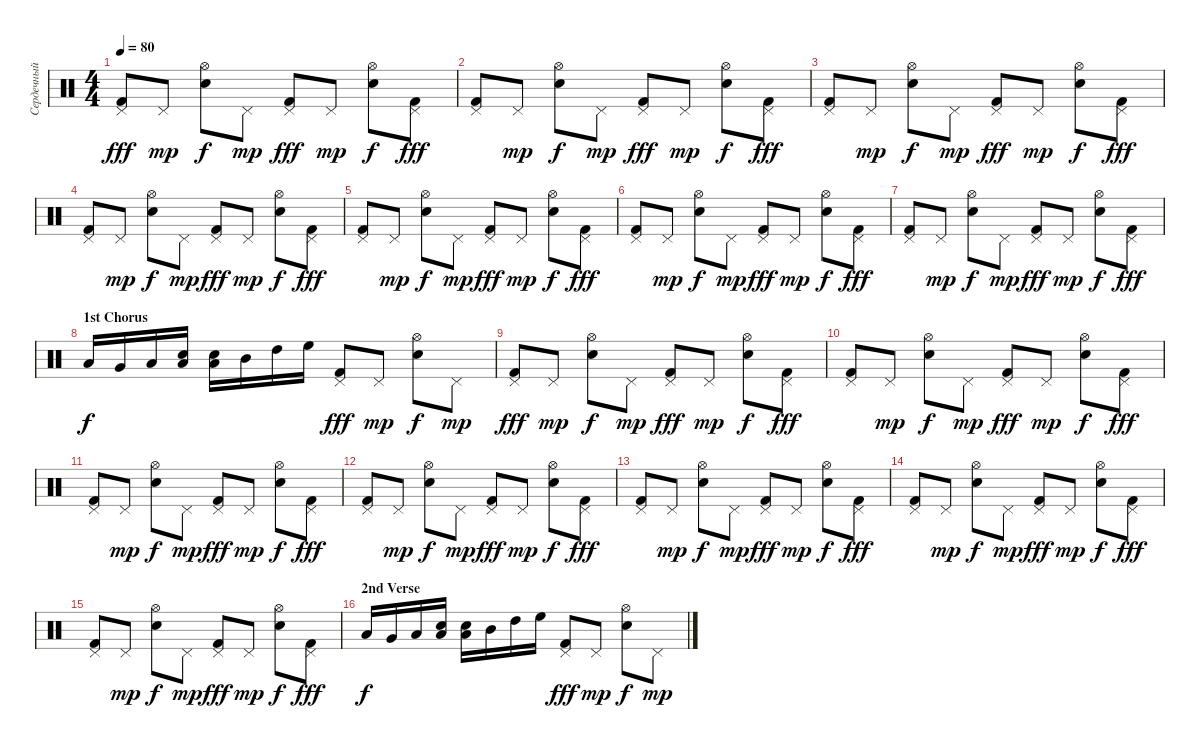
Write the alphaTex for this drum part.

\track ("Сердечный (Ударные)" "Сердечный ") {instrument percussion}
\staff {score}
\articulation defaults
\ts (4 4)
\tempo 80
\clef neutral
\ks c
("Pedal Hi-Hat (hit)" "Kick (hit) 2").8{dy fff} "Pedal Hi-Hat (hit)".8{dy mp} ("Hi-Hat (open)" "Electric Snare (hit)").8{dy f} "Pedal Hi-Hat (hit)".8{dy mp} ("Pedal Hi-Hat (hit)" "Kick (hit) 2").8{dy fff} "Pedal Hi-Hat (hit)".8{dy mp} ("Hi-Hat (open)" "Electric Snare (hit)").8{dy f} ("Pedal Hi-Hat (hit)" "Kick (hit) 2").8{dy fff} |
("Pedal Hi-Hat (hit)" "Kick (hit) 2").8 "Pedal Hi-Hat (hit)".8{dy mp} ("Hi-Hat (open)" "Electric Snare (hit)").8{dy f} "Pedal Hi-Hat (hit)".8{dy mp} ("Pedal Hi-Hat (hit)" "Kick (hit) 2").8{dy fff} "Pedal Hi-Hat (hit)".8{dy mp} ("Hi-Hat (open)" "Electric Snare (hit)").8{dy f} ("Pedal Hi-Hat (hit)" "Kick (hit) 2").8{dy fff} |
("Pedal Hi-Hat (hit)" "Kick (hit) 2").8 "Pedal Hi-Hat (hit)".8{dy mp} ("Hi-Hat (open)" "Electric Snare (hit)").8{dy f} "Pedal Hi-Hat (hit)".8{dy mp} ("Pedal Hi-Hat (hit)" "Kick (hit) 2").8{dy fff} "Pedal Hi-Hat (hit)".8{dy mp} ("Hi-Hat (open)" "Electric Snare (hit)").8{dy f} ("Pedal Hi-Hat (hit)" "Kick (hit) 2").8{dy fff} |
("Pedal Hi-Hat (hit)" "Kick (hit) 2").8 "Pedal Hi-Hat (hit)".8{dy mp} ("Hi-Hat (open)" "Electric Snare (hit)").8{dy f} "Pedal Hi-Hat (hit)".8{dy mp} ("Pedal Hi-Hat (hit)" "Kick (hit) 2").8{dy fff} "Pedal Hi-Hat (hit)".8{dy mp} ("Hi-Hat (open)" "Electric Snare (hit)").8{dy f} ("Pedal Hi-Hat (hit)" "Kick (hit) 2").8{dy fff} |
("Pedal Hi-Hat (hit)" "Kick (hit) 2").8 "Pedal Hi-Hat (hit)".8{dy mp} ("Hi-Hat (open)" "Electric Snare (hit)").8{dy f} "Pedal Hi-Hat (hit)".8{dy mp} ("Pedal Hi-Hat (hit)" "Kick (hit) 2").8{dy fff} "Pedal Hi-Hat (hit)".8{dy mp} ("Hi-Hat (open)" "Electric Snare (hit)").8{dy f} ("Pedal Hi-Hat (hit)" "Kick (hit) 2").8{dy fff} |
("Pedal Hi-Hat (hit)" "Kick (hit) 2").8 "Pedal Hi-Hat (hit)".8{dy mp} ("Hi-Hat (open)" "Electric Snare (hit)").8{dy f} "Pedal Hi-Hat (hit)".8{dy mp} ("Pedal Hi-Hat (hit)" "Kick (hit) 2").8{dy fff} "Pedal Hi-Hat (hit)".8{dy mp} ("Hi-Hat (open)" "Electric Snare (hit)").8{dy f} ("Pedal Hi-Hat (hit)" "Kick (hit) 2").8{dy fff} |
("Pedal Hi-Hat (hit)" "Kick (hit) 2").8 "Pedal Hi-Hat (hit)".8{dy mp} ("Hi-Hat (open)" "Electric Snare (hit)").8{dy f} "Pedal Hi-Hat (hit)".8{dy mp} ("Pedal Hi-Hat (hit)" "Kick (hit) 2").8{dy fff} "Pedal Hi-Hat (hit)".8{dy mp} ("Hi-Hat (open)" "Electric Snare (hit)").8{dy f} ("Pedal Hi-Hat (hit)" "Kick (hit) 2").8{dy fff} |
\section ("" "1st Chorus")
"Low Tom (hit)".16{dy f} "Very Low Tom (hit)".16 "Low Floor Tom (hit)".16 ("Low Floor Tom (hit)" "Electric Snare (hit)").16 ("Electric Snare (hit)" "Low Tom (hit)").16 "Mid Tom (hit)".16 "High Tom (hit)".16 "High Floor Tom (hit)".16 ("Pedal Hi-Hat (hit)" "Kick (hit) 2").8{dy fff} "Pedal Hi-Hat (hit)".8{dy mp} ("Hi-Hat (open)" "Electric Snare (hit)").8{dy f} "Pedal Hi-Hat (hit)".8{dy mp} |
("Pedal Hi-Hat (hit)" "Kick (hit) 2").8{dy fff} "Pedal Hi-Hat (hit)".8{dy mp} ("Hi-Hat (open)" "Electric Snare (hit)").8{dy f} "Pedal Hi-Hat (hit)".8{dy mp} ("Pedal Hi-Hat (hit)" "Kick (hit) 2").8{dy fff} "Pedal Hi-Hat (hit)".8{dy mp} ("Hi-Hat (open)" "Electric Snare (hit)").8{dy f} ("Pedal Hi-Hat (hit)" "Kick (hit) 2").8{dy fff} |
("Pedal Hi-Hat (hit)" "Kick (hit) 2").8 "Pedal Hi-Hat (hit)".8{dy mp} ("Hi-Hat (open)" "Electric Snare (hit)").8{dy f} "Pedal Hi-Hat (hit)".8{dy mp} ("Pedal Hi-Hat (hit)" "Kick (hit) 2").8{dy fff} "Pedal Hi-Hat (hit)".8{dy mp} ("Hi-Hat (open)" "Electric Snare (hit)").8{dy f} ("Pedal Hi-Hat (hit)" "Kick (hit) 2").8{dy fff} |
("Pedal Hi-Hat (hit)" "Kick (hit) 2").8 "Pedal Hi-Hat (hit)".8{dy mp} ("Hi-Hat (open)" "Electric Snare (hit)").8{dy f} "Pedal Hi-Hat (hit)".8{dy mp} ("Pedal Hi-Hat (hit)" "Kick (hit) 2").8{dy fff} "Pedal Hi-Hat (hit)".8{dy mp} ("Hi-Hat (open)" "Electric Snare (hit)").8{dy f} ("Pedal Hi-Hat (hit)" "Kick (hit) 2").8{dy fff} |
("Pedal Hi-Hat (hit)" "Kick (hit) 2").8 "Pedal Hi-Hat (hit)".8{dy mp} ("Hi-Hat (open)" "Electric Snare (hit)").8{dy f} "Pedal Hi-Hat (hit)".8{dy mp} ("Pedal Hi-Hat (hit)" "Kick (hit) 2").8{dy fff} "Pedal Hi-Hat (hit)".8{dy mp} ("Hi-Hat (open)" "Electric Snare (hit)").8{dy f} ("Pedal Hi-Hat (hit)" "Kick (hit) 2").8{dy fff} |
("Pedal Hi-Hat (hit)" "Kick (hit) 2").8 "Pedal Hi-Hat (hit)".8{dy mp} ("Hi-Hat (open)" "Electric Snare (hit)").8{dy f} "Pedal Hi-Hat (hit)".8{dy mp} ("Pedal Hi-Hat (hit)" "Kick (hit) 2").8{dy fff} "Pedal Hi-Hat (hit)".8{dy mp} ("Hi-Hat (open)" "Electric Snare (hit)").8{dy f} ("Pedal Hi-Hat (hit)" "Kick (hit) 2").8{dy fff} |
("Pedal Hi-Hat (hit)" "Kick (hit) 2").8 "Pedal Hi-Hat (hit)".8{dy mp} ("Hi-Hat (open)" "Electric Snare (hit)").8{dy f} "Pedal Hi-Hat (hit)".8{dy mp} ("Pedal Hi-Hat (hit)" "Kick (hit) 2").8{dy fff} "Pedal Hi-Hat (hit)".8{dy mp} ("Hi-Hat (open)" "Electric Snare (hit)").8{dy f} ("Pedal Hi-Hat (hit)" "Kick (hit) 2").8{dy fff} |
("Pedal Hi-Hat (hit)" "Kick (hit) 2").8 "Pedal Hi-Hat (hit)".8{dy mp} ("Hi-Hat (open)" "Electric Snare (hit)").8{dy f} "Pedal Hi-Hat (hit)".8{dy mp} ("Pedal Hi-Hat (hit)" "Kick (hit) 2").8{dy fff} "Pedal Hi-Hat (hit)".8{dy mp} ("Hi-Hat (open)" "Electric Snare (hit)").8{dy f} ("Pedal Hi-Hat (hit)" "Kick (hit) 2").8{dy fff} |
\section ("" "2nd Verse")
"Low Tom (hit)".16{dy f} "Very Low Tom (hit)".16 "Low Floor Tom (hit)".16 ("Low Floor Tom (hit)" "Electric Snare (hit)").16 ("Electric Snare (hit)" "Low Tom (hit)").16 "Mid Tom (hit)".16 "High Tom (hit)".16 "High Floor Tom (hit)".16 ("Pedal Hi-Hat (hit)" "Kick (hit) 2").8{dy fff} "Pedal Hi-Hat (hit)".8{dy mp} ("Hi-Hat (open)" "Electric Snare (hit)").8{dy f} "Pedal Hi-Hat (hit)".8{dy mp}
